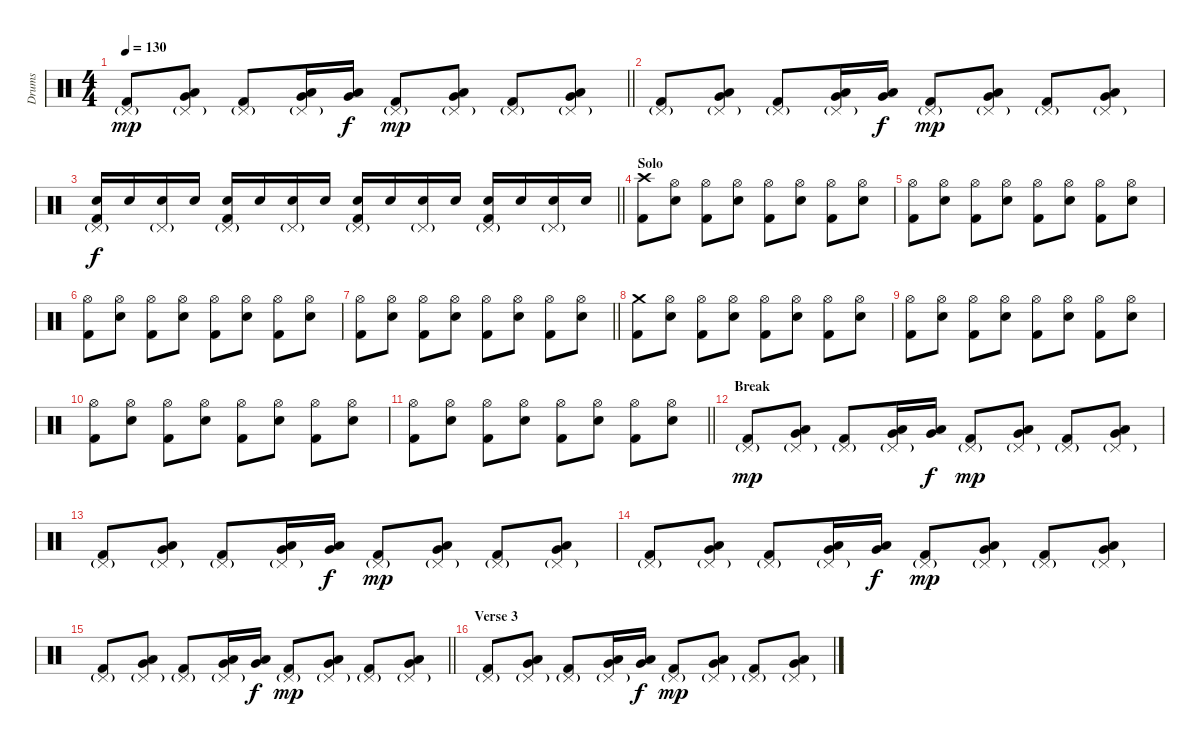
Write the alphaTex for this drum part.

\track ("Drums" "Drums") {instrument percussion}
\staff {score}
\articulation defaults
\ts (4 4)
\tempo 130
\clef neutral
\barLineRight lightlight
\ks c
("Pedal Hi-Hat (hit)"{g} "Kick (hit) 2").8{dy mp} ("Pedal Hi-Hat (hit)"{g} "Low Tom (hit)" "Very Low Tom (hit)").8 ("Pedal Hi-Hat (hit)"{g} "Kick (hit) 2").8 ("Pedal Hi-Hat (hit)"{g} "Very Low Tom (hit)" "Low Floor Tom (hit)").16 ("Very Low Tom (hit)" "Low Floor Tom (hit)").16{dy f} ("Pedal Hi-Hat (hit)"{g} "Kick (hit) 2").8{dy mp} ("Pedal Hi-Hat (hit)"{g} "Very Low Tom (hit)" "Low Floor Tom (hit)").8 ("Pedal Hi-Hat (hit)"{g} "Kick (hit) 2").8 ("Pedal Hi-Hat (hit)"{g} "Very Low Tom (hit)" "Low Floor Tom (hit)").8 |
("Pedal Hi-Hat (hit)"{g} "Kick (hit) 2").8 ("Pedal Hi-Hat (hit)"{g} "Low Tom (hit)" "Very Low Tom (hit)").8 ("Pedal Hi-Hat (hit)"{g} "Kick (hit) 2").8 ("Pedal Hi-Hat (hit)"{g} "Very Low Tom (hit)" "Low Floor Tom (hit)").16 ("Very Low Tom (hit)" "Low Floor Tom (hit)").16{dy f} ("Pedal Hi-Hat (hit)"{g} "Kick (hit) 2").8{dy mp} ("Pedal Hi-Hat (hit)"{g} "Very Low Tom (hit)" "Low Floor Tom (hit)").8 ("Pedal Hi-Hat (hit)"{g} "Kick (hit) 2").8 ("Pedal Hi-Hat (hit)"{g} "Very Low Tom (hit)" "Low Floor Tom (hit)").8 |
\barLineRight lightlight
("Pedal Hi-Hat (hit)"{g} "Electric Snare (hit)" "Kick (hit) 2").16{dy f} "Electric Snare (hit)".16 ("Pedal Hi-Hat (hit)"{g} "Electric Snare (hit)").16 "Electric Snare (hit)".16 ("Pedal Hi-Hat (hit)"{g} "Electric Snare (hit)" "Kick (hit) 2").16 "Electric Snare (hit)".16 ("Pedal Hi-Hat (hit)"{g} "Electric Snare (hit)").16 "Electric Snare (hit)".16 ("Pedal Hi-Hat (hit)"{g} "Electric Snare (hit)" "Kick (hit) 2").16 "Electric Snare (hit)".16 ("Pedal Hi-Hat (hit)"{g} "Electric Snare (hit)").16 "Electric Snare (hit)".16 ("Pedal Hi-Hat (hit)"{g} "Electric Snare (hit)" "Kick (hit) 2").16 "Electric Snare (hit)".16 ("Pedal Hi-Hat (hit)"{g} "Electric Snare (hit)").16 "Electric Snare (hit)".16 |
\section ("" "Solo")
("Crash high (hit)" "Kick (hit) 2").8 ("Hi-Hat (open)" "Electric Snare (hit)").8 ("Hi-Hat (open)" "Kick (hit) 2").8 ("Hi-Hat (open)" "Electric Snare (hit)").8 ("Hi-Hat (open)" "Kick (hit) 2").8 ("Hi-Hat (open)" "Electric Snare (hit)").8 ("Hi-Hat (open)" "Kick (hit) 2").8 ("Hi-Hat (open)" "Electric Snare (hit)").8 |
("Hi-Hat (open)" "Kick (hit) 2").8 ("Hi-Hat (open)" "Electric Snare (hit)").8 ("Hi-Hat (open)" "Kick (hit) 2").8 ("Hi-Hat (open)" "Electric Snare (hit)").8 ("Hi-Hat (open)" "Kick (hit) 2").8 ("Hi-Hat (open)" "Electric Snare (hit)").8 ("Hi-Hat (open)" "Kick (hit) 2").8 ("Hi-Hat (open)" "Electric Snare (hit)").8 |
("Hi-Hat (open)" "Kick (hit) 2").8 ("Hi-Hat (open)" "Electric Snare (hit)").8 ("Hi-Hat (open)" "Kick (hit) 2").8 ("Hi-Hat (open)" "Electric Snare (hit)").8 ("Hi-Hat (open)" "Kick (hit) 2").8 ("Hi-Hat (open)" "Electric Snare (hit)").8 ("Hi-Hat (open)" "Kick (hit) 2").8 ("Hi-Hat (open)" "Electric Snare (hit)").8 |
\barLineRight lightlight
("Hi-Hat (open)" "Kick (hit) 2").8 ("Hi-Hat (open)" "Electric Snare (hit)").8 ("Hi-Hat (open)" "Kick (hit) 2").8 ("Hi-Hat (open)" "Electric Snare (hit)").8 ("Hi-Hat (open)" "Kick (hit) 2").8 ("Hi-Hat (open)" "Electric Snare (hit)").8 ("Hi-Hat (open)" "Kick (hit) 2").8 ("Hi-Hat (open)" "Electric Snare (hit)").8 |
("Crash medium (hit)" "Kick (hit) 2").8 ("Hi-Hat (open)" "Electric Snare (hit)").8 ("Hi-Hat (open)" "Kick (hit) 2").8 ("Hi-Hat (open)" "Electric Snare (hit)").8 ("Hi-Hat (open)" "Kick (hit) 2").8 ("Hi-Hat (open)" "Electric Snare (hit)").8 ("Hi-Hat (open)" "Kick (hit) 2").8 ("Hi-Hat (open)" "Electric Snare (hit)").8 |
("Hi-Hat (open)" "Kick (hit) 2").8 ("Hi-Hat (open)" "Electric Snare (hit)").8 ("Hi-Hat (open)" "Kick (hit) 2").8 ("Hi-Hat (open)" "Electric Snare (hit)").8 ("Hi-Hat (open)" "Kick (hit) 2").8 ("Hi-Hat (open)" "Electric Snare (hit)").8 ("Hi-Hat (open)" "Kick (hit) 2").8 ("Hi-Hat (open)" "Electric Snare (hit)").8 |
("Hi-Hat (open)" "Kick (hit) 2").8 ("Hi-Hat (open)" "Electric Snare (hit)").8 ("Hi-Hat (open)" "Kick (hit) 2").8 ("Hi-Hat (open)" "Electric Snare (hit)").8 ("Hi-Hat (open)" "Kick (hit) 2").8 ("Hi-Hat (open)" "Electric Snare (hit)").8 ("Hi-Hat (open)" "Kick (hit) 2").8 ("Hi-Hat (open)" "Electric Snare (hit)").8 |
\barLineRight lightlight
("Hi-Hat (open)" "Kick (hit) 2").8 ("Hi-Hat (open)" "Electric Snare (hit)").8 ("Hi-Hat (open)" "Kick (hit) 2").8 ("Hi-Hat (open)" "Electric Snare (hit)").8 ("Hi-Hat (open)" "Kick (hit) 2").8 ("Hi-Hat (open)" "Electric Snare (hit)").8 ("Hi-Hat (open)" "Kick (hit) 2").8 ("Hi-Hat (open)" "Electric Snare (hit)").8 |
\section ("" "Break")
("Pedal Hi-Hat (hit)"{g} "Kick (hit) 2").8{dy mp} ("Pedal Hi-Hat (hit)"{g} "Low Tom (hit)" "Very Low Tom (hit)").8 ("Pedal Hi-Hat (hit)"{g} "Kick (hit) 2").8 ("Pedal Hi-Hat (hit)"{g} "Very Low Tom (hit)" "Low Floor Tom (hit)").16 ("Very Low Tom (hit)" "Low Floor Tom (hit)").16{dy f} ("Pedal Hi-Hat (hit)"{g} "Kick (hit) 2").8{dy mp} ("Pedal Hi-Hat (hit)"{g} "Very Low Tom (hit)" "Low Floor Tom (hit)").8 ("Pedal Hi-Hat (hit)"{g} "Kick (hit) 2").8 ("Pedal Hi-Hat (hit)"{g} "Very Low Tom (hit)" "Low Floor Tom (hit)").8 |
("Pedal Hi-Hat (hit)"{g} "Kick (hit) 2").8 ("Pedal Hi-Hat (hit)"{g} "Low Tom (hit)" "Very Low Tom (hit)").8 ("Pedal Hi-Hat (hit)"{g} "Kick (hit) 2").8 ("Pedal Hi-Hat (hit)"{g} "Very Low Tom (hit)" "Low Floor Tom (hit)").16 ("Very Low Tom (hit)" "Low Floor Tom (hit)").16{dy f} ("Pedal Hi-Hat (hit)"{g} "Kick (hit) 2").8{dy mp} ("Pedal Hi-Hat (hit)"{g} "Very Low Tom (hit)" "Low Floor Tom (hit)").8 ("Pedal Hi-Hat (hit)"{g} "Kick (hit) 2").8 ("Pedal Hi-Hat (hit)"{g} "Very Low Tom (hit)" "Low Floor Tom (hit)").8 |
("Pedal Hi-Hat (hit)"{g} "Kick (hit) 2").8 ("Pedal Hi-Hat (hit)"{g} "Low Tom (hit)" "Very Low Tom (hit)").8 ("Pedal Hi-Hat (hit)"{g} "Kick (hit) 2").8 ("Pedal Hi-Hat (hit)"{g} "Very Low Tom (hit)" "Low Floor Tom (hit)").16 ("Very Low Tom (hit)" "Low Floor Tom (hit)").16{dy f} ("Pedal Hi-Hat (hit)"{g} "Kick (hit) 2").8{dy mp} ("Pedal Hi-Hat (hit)"{g} "Very Low Tom (hit)" "Low Floor Tom (hit)").8 ("Pedal Hi-Hat (hit)"{g} "Kick (hit) 2").8 ("Pedal Hi-Hat (hit)"{g} "Very Low Tom (hit)" "Low Floor Tom (hit)").8 |
\barLineRight lightlight
("Pedal Hi-Hat (hit)"{g} "Kick (hit) 2").8 ("Pedal Hi-Hat (hit)"{g} "Low Tom (hit)" "Very Low Tom (hit)").8 ("Pedal Hi-Hat (hit)"{g} "Kick (hit) 2").8 ("Pedal Hi-Hat (hit)"{g} "Very Low Tom (hit)" "Low Floor Tom (hit)").16 ("Very Low Tom (hit)" "Low Floor Tom (hit)").16{dy f} ("Pedal Hi-Hat (hit)"{g} "Kick (hit) 2").8{dy mp} ("Pedal Hi-Hat (hit)"{g} "Very Low Tom (hit)" "Low Floor Tom (hit)").8 ("Pedal Hi-Hat (hit)"{g} "Kick (hit) 2").8 ("Pedal Hi-Hat (hit)"{g} "Very Low Tom (hit)" "Low Floor Tom (hit)").8 |
\section ("" "Verse 3")
("Pedal Hi-Hat (hit)"{g} "Kick (hit) 2").8 ("Pedal Hi-Hat (hit)"{g} "Low Tom (hit)" "Very Low Tom (hit)").8 ("Pedal Hi-Hat (hit)"{g} "Kick (hit) 2").8 ("Pedal Hi-Hat (hit)"{g} "Very Low Tom (hit)" "Low Floor Tom (hit)").16 ("Very Low Tom (hit)" "Low Floor Tom (hit)").16{dy f} ("Pedal Hi-Hat (hit)"{g} "Kick (hit) 2").8{dy mp} ("Pedal Hi-Hat (hit)"{g} "Very Low Tom (hit)" "Low Floor Tom (hit)").8 ("Pedal Hi-Hat (hit)"{g} "Kick (hit) 2").8 ("Pedal Hi-Hat (hit)"{g} "Very Low Tom (hit)" "Low Floor Tom (hit)").8
